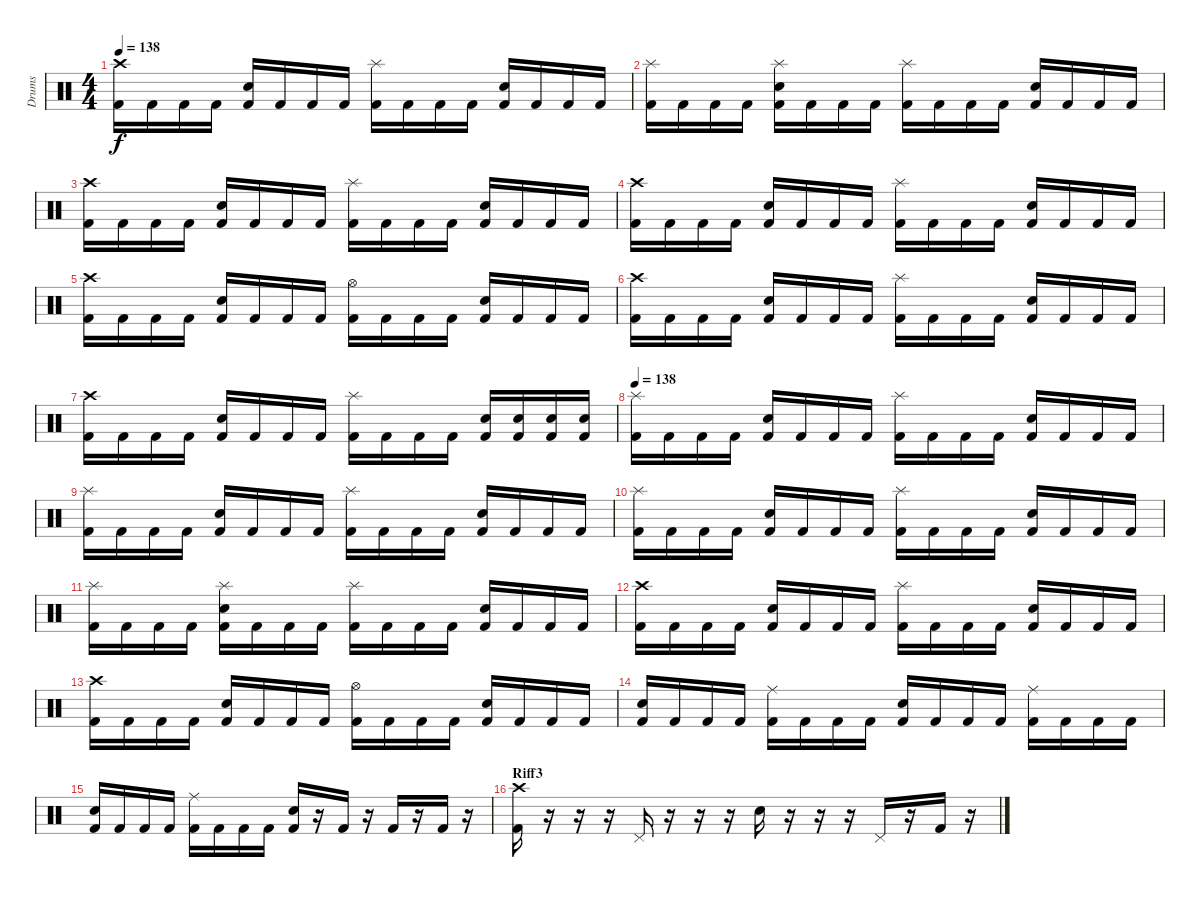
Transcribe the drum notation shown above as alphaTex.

\track ("Drums" "Drums") {instrument percussion}
\staff {score}
\articulation defaults
\ts (4 4)
\tempo 138
\clef neutral
\ks c
("Crash high (hit)" "Kick (hit) 2").16{dy f} "Kick (hit) 2".16 "Kick (hit) 2".16 "Kick (hit) 2".16 ("Snare (hit) 2" "Kick (hit) 2").16 "Kick (hit) 2".16 "Kick (hit) 2".16 "Kick (hit) 2".16 ("Splash (hit)" "Kick (hit) 2").16 "Kick (hit) 2".16 "Kick (hit) 2".16 "Kick (hit) 2".16 ("Snare (hit) 2" "Kick (hit) 2").16 "Kick (hit) 2".16 "Kick (hit) 2".16 "Kick (hit) 2".16 |
("Splash (hit)" "Kick (hit) 2").16 "Kick (hit) 2".16 "Kick (hit) 2".16 "Kick (hit) 2".16 ("Splash (hit)" "Snare (hit) 2" "Kick (hit) 2").16 "Kick (hit) 2".16 "Kick (hit) 2".16 "Kick (hit) 2".16 ("Splash (hit)" "Kick (hit) 2").16 "Kick (hit) 2".16 "Kick (hit) 2".16 "Kick (hit) 2".16 ("Snare (hit) 2" "Kick (hit) 2").16 "Kick (hit) 2".16 "Kick (hit) 2".16 "Kick (hit) 2".16 |
("Crash high (hit)" "Kick (hit) 2").16 "Kick (hit) 2".16 "Kick (hit) 2".16 "Kick (hit) 2".16 ("Snare (hit) 2" "Kick (hit) 2").16 "Kick (hit) 2".16 "Kick (hit) 2".16 "Kick (hit) 2".16 ("Splash (hit)" "Kick (hit) 2").16 "Kick (hit) 2".16 "Kick (hit) 2".16 "Kick (hit) 2".16 ("Snare (hit) 2" "Kick (hit) 2").16 "Kick (hit) 2".16 "Kick (hit) 2".16 "Kick (hit) 2".16 |
("Crash high (hit)" "Kick (hit) 2").16 "Kick (hit) 2".16 "Kick (hit) 2".16 "Kick (hit) 2".16 ("Snare (hit) 2" "Kick (hit) 2").16 "Kick (hit) 2".16 "Kick (hit) 2".16 "Kick (hit) 2".16 ("Splash (hit)" "Kick (hit) 2").16 "Kick (hit) 2".16 "Kick (hit) 2".16 "Kick (hit) 2".16 ("Snare (hit) 2" "Kick (hit) 2").16 "Kick (hit) 2".16 "Kick (hit) 2".16 "Kick (hit) 2".16 |
("Crash high (hit)" "Kick (hit) 2").16 "Kick (hit) 2".16 "Kick (hit) 2".16 "Kick (hit) 2".16 ("Snare (hit) 2" "Kick (hit) 2").16 "Kick (hit) 2".16 "Kick (hit) 2".16 "Kick (hit) 2".16 ("Hi-Hat (open)" "Kick (hit) 2").16 "Kick (hit) 2".16 "Kick (hit) 2".16 "Kick (hit) 2".16 ("Snare (hit) 2" "Kick (hit) 2").16 "Kick (hit) 2".16 "Kick (hit) 2".16 "Kick (hit) 2".16 |
("Crash high (hit)" "Kick (hit) 2").16 "Kick (hit) 2".16 "Kick (hit) 2".16 "Kick (hit) 2".16 ("Snare (hit) 2" "Kick (hit) 2").16 "Kick (hit) 2".16 "Kick (hit) 2".16 "Kick (hit) 2".16 ("Splash (hit)" "Kick (hit) 2").16 "Kick (hit) 2".16 "Kick (hit) 2".16 "Kick (hit) 2".16 ("Snare (hit) 2" "Kick (hit) 2").16 "Kick (hit) 2".16 "Kick (hit) 2".16 "Kick (hit) 2".16 |
("Crash high (hit)" "Kick (hit) 2").16 "Kick (hit) 2".16 "Kick (hit) 2".16 "Kick (hit) 2".16 ("Snare (hit) 2" "Kick (hit) 2").16 "Kick (hit) 2".16 "Kick (hit) 2".16 "Kick (hit) 2".16 ("Splash (hit)" "Kick (hit) 2").16 "Kick (hit) 2".16 "Kick (hit) 2".16 "Kick (hit) 2".16 ("Snare (hit) 2" "Kick (hit) 2").16 ("Snare (hit) 2" "Kick (hit) 2").16 ("Snare (hit) 2" "Kick (hit) 2").16 ("Snare (hit) 2" "Kick (hit) 2").16 |
\tempo 138
("Splash (hit)" "Kick (hit) 2").16 "Kick (hit) 2".16 "Kick (hit) 2".16 "Kick (hit) 2".16 ("Snare (hit) 2" "Kick (hit) 2").16 "Kick (hit) 2".16 "Kick (hit) 2".16 "Kick (hit) 2".16 ("Splash (hit)" "Kick (hit) 2").16 "Kick (hit) 2".16 "Kick (hit) 2".16 "Kick (hit) 2".16 ("Snare (hit) 2" "Kick (hit) 2").16 "Kick (hit) 2".16 "Kick (hit) 2".16 "Kick (hit) 2".16 |
("Splash (hit)" "Kick (hit) 2").16 "Kick (hit) 2".16 "Kick (hit) 2".16 "Kick (hit) 2".16 ("Snare (hit) 2" "Kick (hit) 2").16 "Kick (hit) 2".16 "Kick (hit) 2".16 "Kick (hit) 2".16 ("Splash (hit)" "Kick (hit) 2").16 "Kick (hit) 2".16 "Kick (hit) 2".16 "Kick (hit) 2".16 ("Snare (hit) 2" "Kick (hit) 2").16 "Kick (hit) 2".16 "Kick (hit) 2".16 "Kick (hit) 2".16 |
("Splash (hit)" "Kick (hit) 2").16 "Kick (hit) 2".16 "Kick (hit) 2".16 "Kick (hit) 2".16 ("Snare (hit) 2" "Kick (hit) 2").16 "Kick (hit) 2".16 "Kick (hit) 2".16 "Kick (hit) 2".16 ("Splash (hit)" "Kick (hit) 2").16 "Kick (hit) 2".16 "Kick (hit) 2".16 "Kick (hit) 2".16 ("Snare (hit) 2" "Kick (hit) 2").16 "Kick (hit) 2".16 "Kick (hit) 2".16 "Kick (hit) 2".16 |
("Splash (hit)" "Kick (hit) 2").16 "Kick (hit) 2".16 "Kick (hit) 2".16 "Kick (hit) 2".16 ("Splash (hit)" "Snare (hit) 2" "Kick (hit) 2").16 "Kick (hit) 2".16 "Kick (hit) 2".16 "Kick (hit) 2".16 ("Splash (hit)" "Kick (hit) 2").16 "Kick (hit) 2".16 "Kick (hit) 2".16 "Kick (hit) 2".16 ("Snare (hit) 2" "Kick (hit) 2").16 "Kick (hit) 2".16 "Kick (hit) 2".16 "Kick (hit) 2".16 |
("Crash high (hit)" "Kick (hit) 2").16 "Kick (hit) 2".16 "Kick (hit) 2".16 "Kick (hit) 2".16 ("Snare (hit) 2" "Kick (hit) 2").16 "Kick (hit) 2".16 "Kick (hit) 2".16 "Kick (hit) 2".16 ("Splash (hit)" "Kick (hit) 2").16 "Kick (hit) 2".16 "Kick (hit) 2".16 "Kick (hit) 2".16 ("Snare (hit) 2" "Kick (hit) 2").16 "Kick (hit) 2".16 "Kick (hit) 2".16 "Kick (hit) 2".16 |
("Crash high (hit)" "Kick (hit) 2").16 "Kick (hit) 2".16 "Kick (hit) 2".16 "Kick (hit) 2".16 ("Snare (hit) 2" "Kick (hit) 2").16 "Kick (hit) 2".16 "Kick (hit) 2".16 "Kick (hit) 2".16 ("Hi-Hat (open)" "Kick (hit) 2").16 "Kick (hit) 2".16 "Kick (hit) 2".16 "Kick (hit) 2".16 ("Snare (hit) 2" "Kick (hit) 2").16 "Kick (hit) 2".16 "Kick (hit) 2".16 "Kick (hit) 2".16 |
("Snare (hit) 2" "Kick (hit) 2").16 "Kick (hit) 2".16 "Kick (hit) 2".16 "Kick (hit) 2".16 ("Ride (middle)" "Kick (hit) 2").16 "Kick (hit) 2".16 "Kick (hit) 2".16 "Kick (hit) 2".16 ("Snare (hit) 2" "Kick (hit) 2").16 "Kick (hit) 2".16 "Kick (hit) 2".16 "Kick (hit) 2".16 ("Ride (middle)" "Kick (hit) 2").16 "Kick (hit) 2".16 "Kick (hit) 2".16 "Kick (hit) 2".16 |
("Snare (hit) 2" "Kick (hit) 2").16 "Kick (hit) 2".16 "Kick (hit) 2".16 "Kick (hit) 2".16 ("Ride (middle)" "Kick (hit) 2").16 "Kick (hit) 2".16 "Kick (hit) 2".16 "Kick (hit) 2".16 ("Snare (hit) 2" "Kick (hit) 2").16 r.16 "Kick (hit) 2".16 r.16 "Kick (hit) 2".16 r.16 "Kick (hit) 2".16 r.16 |
\section ("" "Riff3")
("Crash high (hit)" "Kick (hit) 2").16 r.16 r.16 r.16 "Pedal Hi-Hat (hit)".16 r.16 r.16 r.16 "Snare (hit) 2".16 r.16 r.16 r.16 "Pedal Hi-Hat (hit)".16 r.16 "Kick (hit) 2".16 r.16
